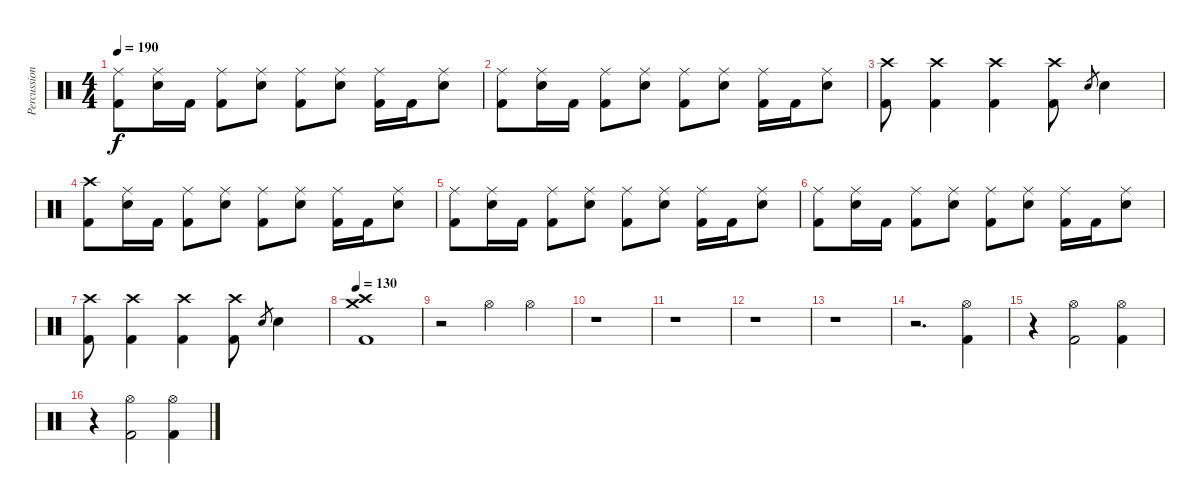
\track ("Percussion" "Percussion") {instrument percussion}
\staff {score}
\articulation defaults
\ts (4 4)
\tempo 190
\clef neutral
\ks c
("Ride (middle)" "Kick (hit) 2").8{dy f} ("Ride (middle)" "Electric Snare (hit)").16 "Kick (hit) 2".16 ("Ride (middle)" "Kick (hit) 2").8 ("Ride (middle)" "Electric Snare (hit)").8 ("Ride (middle)" "Kick (hit) 2").8 ("Ride (middle)" "Electric Snare (hit)").8 ("Ride (middle)" "Kick (hit) 2").16 "Kick (hit) 2".16 ("Ride (middle)" "Electric Snare (hit)").8 |
("Ride (middle)" "Kick (hit) 2").8 ("Ride (middle)" "Electric Snare (hit)").16 "Kick (hit) 2".16 ("Ride (middle)" "Kick (hit) 2").8 ("Ride (middle)" "Electric Snare (hit)").8 ("Ride (middle)" "Kick (hit) 2").8 ("Ride (middle)" "Electric Snare (hit)").8 ("Ride (middle)" "Kick (hit) 2").16 "Kick (hit) 2".16 ("Ride (middle)" "Electric Snare (hit)").8 |
("Crash high (hit)" "Kick (hit) 2").8 ("Crash high (hit)" "Kick (hit) 2").4 ("Crash high (hit)" "Kick (hit) 2").4 ("Crash high (hit)" "Kick (hit) 2").8 "Electric Snare (hit)".8{gr} "Electric Snare (hit)".4 |
("Crash high (hit)" "Kick (hit) 2").8 ("Ride (middle)" "Electric Snare (hit)").16 "Kick (hit) 2".16 ("Ride (middle)" "Kick (hit) 2").8 ("Ride (middle)" "Electric Snare (hit)").8 ("Ride (middle)" "Kick (hit) 2").8 ("Ride (middle)" "Electric Snare (hit)").8 ("Ride (middle)" "Kick (hit) 2").16 "Kick (hit) 2".16 ("Ride (middle)" "Electric Snare (hit)").8 |
("Ride (middle)" "Kick (hit) 2").8 ("Ride (middle)" "Electric Snare (hit)").16 "Kick (hit) 2".16 ("Ride (middle)" "Kick (hit) 2").8 ("Ride (middle)" "Electric Snare (hit)").8 ("Ride (middle)" "Kick (hit) 2").8 ("Ride (middle)" "Electric Snare (hit)").8 ("Ride (middle)" "Kick (hit) 2").16 "Kick (hit) 2".16 ("Ride (middle)" "Electric Snare (hit)").8 |
("Ride (middle)" "Kick (hit) 2").8 ("Ride (middle)" "Electric Snare (hit)").16 "Kick (hit) 2".16 ("Ride (middle)" "Kick (hit) 2").8 ("Ride (middle)" "Electric Snare (hit)").8 ("Ride (middle)" "Kick (hit) 2").8 ("Ride (middle)" "Electric Snare (hit)").8 ("Ride (middle)" "Kick (hit) 2").16 "Kick (hit) 2".16 ("Ride (middle)" "Electric Snare (hit)").8 |
("Crash high (hit)" "Kick (hit) 2").8 ("Crash high (hit)" "Kick (hit) 2").4 ("Crash high (hit)" "Kick (hit) 2").4 ("Crash high (hit)" "Kick (hit) 2").8 "Electric Snare (hit)".8{gr} "Electric Snare (hit)".4 |
\tempo 130
("Crash high (hit)" "Crash medium (hit)" "Kick (hit) 2").1 |
r.2 "Hi-Hat (open)".4 "Hi-Hat (open)".4 |
r.1 |
r.1 |
r.1 |
r.1 |
r.2{d} ("Hi-Hat (open)" "Kick (hit) 2").4 |
r.4 ("Hi-Hat (open)" "Kick (hit) 2").2 ("Hi-Hat (open)" "Kick (hit) 2").4 |
r.4 ("Hi-Hat (open)" "Kick (hit) 2").2 ("Hi-Hat (open)" "Kick (hit) 2").4
